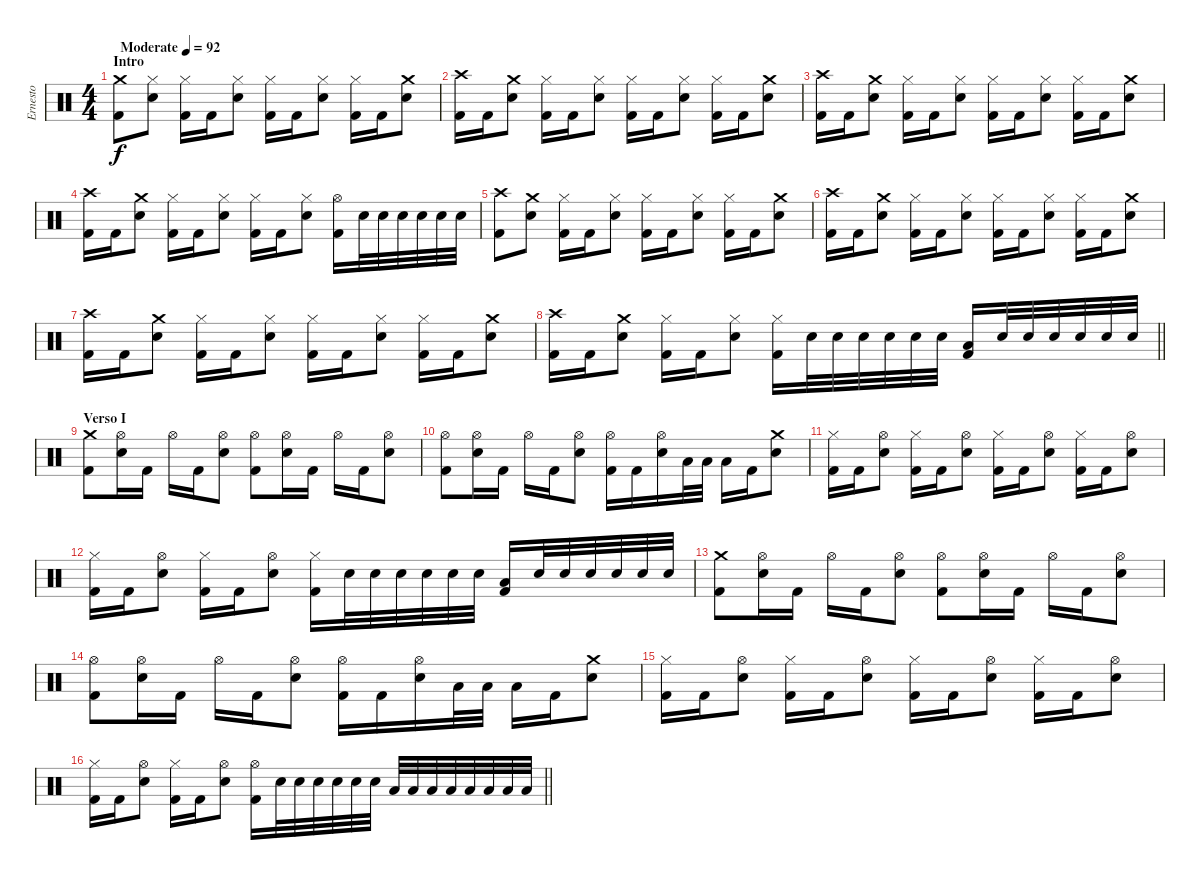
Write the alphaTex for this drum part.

\track ("Ernesto" "Ernesto") {instrument percussion}
\staff
\articulation defaults
\ts (4 4)
\section ("" "Intro")
\tempo (92 "Moderate")
\clef neutral
\ks c
("Crash medium (hit)" "Kick (hit) 2").8{dy f} ("Hi-Hat (closed)" "Electric Snare (hit)").8 ("Hi-Hat (closed)" "Kick (hit) 2").16 "Kick (hit) 2".16 ("Hi-Hat (closed)" "Electric Snare (hit)").8 ("Hi-Hat (closed)" "Kick (hit) 2").16 "Kick (hit) 2".16 ("Hi-Hat (closed)" "Electric Snare (hit)").8 ("Hi-Hat (closed)" "Kick (hit) 2").16 "Kick (hit) 2".16 ("Crash medium (hit)" "Electric Snare (hit)").8 |
("Crash high (hit)" "Kick (hit) 2").16 "Kick (hit) 2".16 ("Crash medium (hit)" "Electric Snare (hit)").8 ("Hi-Hat (closed)" "Kick (hit) 2").16 "Kick (hit) 2".16 ("Hi-Hat (closed)" "Electric Snare (hit)").8 ("Hi-Hat (closed)" "Kick (hit) 2").16 "Kick (hit) 2".16 ("Hi-Hat (closed)" "Electric Snare (hit)").8 ("Hi-Hat (closed)" "Kick (hit) 2").16 "Kick (hit) 2".16 ("Crash medium (hit)" "Electric Snare (hit)").8 |
("Crash high (hit)" "Kick (hit) 2").16 "Kick (hit) 2".16 ("Crash medium (hit)" "Electric Snare (hit)").8 ("Hi-Hat (closed)" "Kick (hit) 2").16 "Kick (hit) 2".16 ("Hi-Hat (closed)" "Electric Snare (hit)").8 ("Hi-Hat (closed)" "Kick (hit) 2").16 "Kick (hit) 2".16 ("Hi-Hat (closed)" "Electric Snare (hit)").8 ("Hi-Hat (closed)" "Kick (hit) 2").16 "Kick (hit) 2".16 ("Crash medium (hit)" "Electric Snare (hit)").8 |
("Crash high (hit)" "Kick (hit) 2").16 "Kick (hit) 2".16 ("Crash medium (hit)" "Electric Snare (hit)").8 ("Hi-Hat (closed)" "Kick (hit) 2").16 "Kick (hit) 2".16 ("Hi-Hat (closed)" "Electric Snare (hit)").8 ("Hi-Hat (closed)" "Kick (hit) 2").16 "Kick (hit) 2".16 ("Hi-Hat (closed)" "Electric Snare (hit)").8 ("Hi-Hat (open)" "Kick (hit) 2").16 "Electric Snare (hit)".32 "Electric Snare (hit)".32 "Electric Snare (hit)".32 "Electric Snare (hit)".32 "Electric Snare (hit)".32 "Electric Snare (hit)".32 |
("Crash high (hit)" "Kick (hit) 2").8 ("Crash medium (hit)" "Electric Snare (hit)").8 ("Hi-Hat (closed)" "Kick (hit) 2").16 "Kick (hit) 2".16 ("Hi-Hat (closed)" "Electric Snare (hit)").8 ("Hi-Hat (closed)" "Kick (hit) 2").16 "Kick (hit) 2".16 ("Hi-Hat (closed)" "Electric Snare (hit)").8 ("Hi-Hat (closed)" "Kick (hit) 2").16 "Kick (hit) 2".16 ("Crash medium (hit)" "Electric Snare (hit)").8 |
("Crash high (hit)" "Kick (hit) 2").16 "Kick (hit) 2".16 ("Crash medium (hit)" "Electric Snare (hit)").8 ("Hi-Hat (closed)" "Kick (hit) 2").16 "Kick (hit) 2".16 ("Hi-Hat (closed)" "Electric Snare (hit)").8 ("Hi-Hat (closed)" "Kick (hit) 2").16 "Kick (hit) 2".16 ("Hi-Hat (closed)" "Electric Snare (hit)").8 ("Hi-Hat (closed)" "Kick (hit) 2").16 "Kick (hit) 2".16 ("Crash medium (hit)" "Electric Snare (hit)").8 |
("Crash high (hit)" "Kick (hit) 2").16 "Kick (hit) 2".16 ("Crash medium (hit)" "Electric Snare (hit)").8 ("Hi-Hat (closed)" "Kick (hit) 2").16 "Kick (hit) 2".16 ("Hi-Hat (closed)" "Electric Snare (hit)").8 ("Hi-Hat (closed)" "Kick (hit) 2").16 "Kick (hit) 2".16 ("Hi-Hat (closed)" "Electric Snare (hit)").8 ("Hi-Hat (closed)" "Kick (hit) 2").16 "Kick (hit) 2".16 ("Crash medium (hit)" "Electric Snare (hit)").8 |
\barLineRight lightlight
("Crash high (hit)" "Kick (hit) 2").16 "Kick (hit) 2".16 ("Crash medium (hit)" "Electric Snare (hit)").8 ("Hi-Hat (closed)" "Kick (hit) 2").16 "Kick (hit) 2".16 ("Hi-Hat (closed)" "Electric Snare (hit)").8 ("Hi-Hat (closed)" "Kick (hit) 2").16 "Electric Snare (hit)".32 "Electric Snare (hit)".32 "Electric Snare (hit)".32 "Electric Snare (hit)".32 "Electric Snare (hit)".32 "Electric Snare (hit)".32 ("Low Tom (hit)" "Kick (hit) 2").16 "Electric Snare (hit)".32 "Electric Snare (hit)".32 "Electric Snare (hit)".32 "Electric Snare (hit)".32 "Electric Snare (hit)".32 "Electric Snare (hit)".32 |
\section ("" "Verso I")
("Crash medium (hit)" "Kick (hit) 2").8 ("Hi-Hat (open)" "Electric Snare (hit)").16 "Kick (hit) 2".16 "Hi-Hat (open)".16 "Kick (hit) 2".16 ("Hi-Hat (open)" "Electric Snare (hit)").8 ("Hi-Hat (open)" "Kick (hit) 2").8 ("Hi-Hat (open)" "Electric Snare (hit)").16 "Kick (hit) 2".16 "Hi-Hat (open)".16 "Kick (hit) 2".16 ("Hi-Hat (open)" "Electric Snare (hit)").8 |
("Hi-Hat (open)" "Kick (hit) 2").8 ("Hi-Hat (open)" "Electric Snare (hit)").16 "Kick (hit) 2".16 "Hi-Hat (open)".16 "Kick (hit) 2".16 ("Hi-Hat (open)" "Electric Snare (hit)").8 ("Hi-Hat (open)" "Kick (hit) 2").16 "Kick (hit) 2".16 ("Hi-Hat (open)" "Electric Snare (hit)").16 "Low Tom (hit)".32 "Low Tom (hit)".32 "Low Floor Tom (hit)".16 "Kick (hit) 2".16 ("Crash medium (hit)" "Electric Snare (hit)").8 |
("Hi-Hat (closed)" "Kick (hit) 2").16 "Kick (hit) 2".16 ("Hi-Hat (open)" "Electric Snare (hit)").8 ("Hi-Hat (closed)" "Kick (hit) 2").16 "Kick (hit) 2".16 ("Hi-Hat (open)" "Electric Snare (hit)").8 ("Hi-Hat (closed)" "Kick (hit) 2").16 "Kick (hit) 2".16 ("Hi-Hat (open)" "Electric Snare (hit)").8 ("Hi-Hat (closed)" "Kick (hit) 2").16 "Kick (hit) 2".16 ("Hi-Hat (open)" "Electric Snare (hit)").8 |
("Hi-Hat (closed)" "Kick (hit) 2").16 "Kick (hit) 2".16 ("Hi-Hat (open)" "Electric Snare (hit)").8 ("Hi-Hat (closed)" "Kick (hit) 2").16 "Kick (hit) 2".16 ("Hi-Hat (open)" "Electric Snare (hit)").8 ("Hi-Hat (closed)" "Kick (hit) 2").16 "Electric Snare (hit)".32 "Electric Snare (hit)".32 "Electric Snare (hit)".32 "Electric Snare (hit)".32 "Electric Snare (hit)".32 "Electric Snare (hit)".32 ("Low Tom (hit)" "Kick (hit) 2").16 "Electric Snare (hit)".32 "Electric Snare (hit)".32 "Electric Snare (hit)".32 "Electric Snare (hit)".32 "Electric Snare (hit)".32 "Electric Snare (hit)".32 |
("Crash medium (hit)" "Kick (hit) 2").8 ("Hi-Hat (open)" "Electric Snare (hit)").16 "Kick (hit) 2".16 "Hi-Hat (open)".16 "Kick (hit) 2".16 ("Hi-Hat (open)" "Electric Snare (hit)").8 ("Hi-Hat (open)" "Kick (hit) 2").8 ("Hi-Hat (open)" "Electric Snare (hit)").16 "Kick (hit) 2".16 "Hi-Hat (open)".16 "Kick (hit) 2".16 ("Hi-Hat (open)" "Electric Snare (hit)").8 |
("Hi-Hat (open)" "Kick (hit) 2").8 ("Hi-Hat (open)" "Electric Snare (hit)").16 "Kick (hit) 2".16 "Hi-Hat (open)".16 "Kick (hit) 2".16 ("Hi-Hat (open)" "Electric Snare (hit)").8 ("Hi-Hat (open)" "Kick (hit) 2").16 "Kick (hit) 2".16 ("Hi-Hat (open)" "Electric Snare (hit)").16 "Low Tom (hit)".32 "Low Tom (hit)".32 "Low Floor Tom (hit)".16 "Kick (hit) 2".16 ("Crash medium (hit)" "Electric Snare (hit)").8 |
("Hi-Hat (closed)" "Kick (hit) 2").16 "Kick (hit) 2".16 ("Hi-Hat (open)" "Electric Snare (hit)").8 ("Hi-Hat (closed)" "Kick (hit) 2").16 "Kick (hit) 2".16 ("Hi-Hat (open)" "Electric Snare (hit)").8 ("Hi-Hat (closed)" "Kick (hit) 2").16 "Kick (hit) 2".16 ("Hi-Hat (open)" "Electric Snare (hit)").8 ("Hi-Hat (closed)" "Kick (hit) 2").16 "Kick (hit) 2".16 ("Hi-Hat (open)" "Electric Snare (hit)").8 |
\barLineRight lightlight
("Hi-Hat (closed)" "Kick (hit) 2").16 "Kick (hit) 2".16 ("Hi-Hat (open)" "Electric Snare (hit)").8 ("Hi-Hat (closed)" "Kick (hit) 2").16 "Kick (hit) 2".16 ("Hi-Hat (open)" "Electric Snare (hit)").8 ("Hi-Hat (open)" "Kick (hit) 2").16 "Electric Snare (hit)".32 "Electric Snare (hit)".32 "Electric Snare (hit)".32 "Electric Snare (hit)".32 "Electric Snare (hit)".32 "Electric Snare (hit)".32 "Low Tom (hit)".32 "Low Tom (hit)".32 "Low Tom (hit)".32 "Low Tom (hit)".32 "Low Floor Tom (hit)".32 "Low Floor Tom (hit)".32 "Low Floor Tom (hit)".32 "Low Floor Tom (hit)".32
